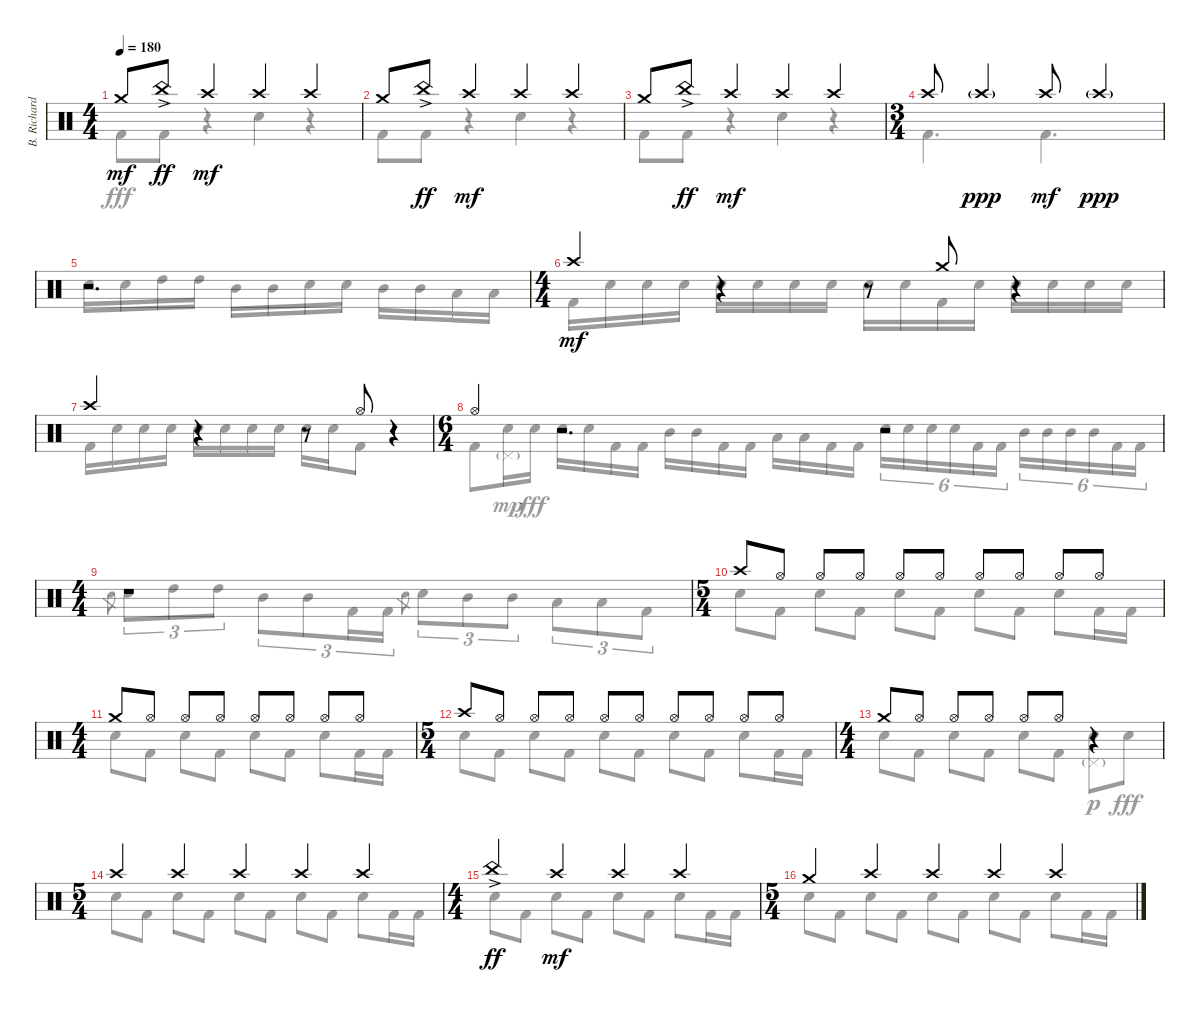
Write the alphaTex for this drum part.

\track ("B. Richardson Drums" "B. Richard") {instrument percussion}
\staff {score}
\articulation defaults
\voice
\ts (4 4)
\tempo 180
\clef neutral
\ks c "Crash medium (hit)".8{dy mf} "China (hit)"{ac}.8{dy ff} "Crash high (hit)".4{dy mf} "Crash high (hit)".4 "Crash high (hit)".4
|
"Crash medium (hit)".8 "China (hit)"{ac}.8{dy ff} "Crash high (hit)".4{dy mf} "Crash high (hit)".4 "Crash high (hit)".4 |
"Crash medium (hit)".8 "China (hit)"{ac}.8{dy ff} "Crash high (hit)".4{dy mf} "Crash high (hit)".4 "Crash high (hit)".4 |
\ts (3 4)
"Crash high (hit)".8 "Crash high (hit)"{g}.4{dy ppp} "Crash high (hit)".8{dy mf} "Crash high (hit)"{g}.4{dy ppp} |
r.2{d} |
\ts (4 4)
"Crash high (hit)".4{dy mf} r.4 r.8 "Crash medium (hit)".8 r.4 |
"Crash high (hit)".4 r.4 r.8 "Hi-Hat (open)".8 r.4 |
\ts (6 4)
"Hi-Hat (open)".4 r.2{d} r.2 |
\ts (4 4)
r.1 |
\ts (5 4)
"Crash high (hit)".8 "Hi-Hat (open)".8 "Hi-Hat (open)".8 "Hi-Hat (open)".8 "Hi-Hat (open)".8 "Hi-Hat (open)".8 "Hi-Hat (open)".8 "Hi-Hat (open)".8 "Hi-Hat (open)".8 "Hi-Hat (open)".8 |
\ts (4 4)
"Crash medium (hit)".8 "Hi-Hat (open)".8 "Hi-Hat (open)".8 "Hi-Hat (open)".8 "Hi-Hat (open)".8 "Hi-Hat (open)".8 "Hi-Hat (open)".8 "Hi-Hat (open)".8 |
\ts (5 4)
"Crash high (hit)".8 "Hi-Hat (open)".8 "Hi-Hat (open)".8 "Hi-Hat (open)".8 "Hi-Hat (open)".8 "Hi-Hat (open)".8 "Hi-Hat (open)".8 "Hi-Hat (open)".8 "Hi-Hat (open)".8 "Hi-Hat (open)".8 |
\ts (4 4)
"Crash medium (hit)".8 "Hi-Hat (open)".8 "Hi-Hat (open)".8 "Hi-Hat (open)".8 "Hi-Hat (open)".8 "Hi-Hat (open)".8 r.4 |
\ts (5 4)
"Crash high (hit)".4 "Crash high (hit)".4 "Crash high (hit)".4 "Crash high (hit)".4 "Crash high (hit)".4 |
\ts (4 4)
"China (hit)"{ac}.4{dy ff} "Crash high (hit)".4{dy mf} "Crash high (hit)".4 "Crash high (hit)".4 |
\ts (5 4)
"Crash medium (hit)".4 "Crash high (hit)".4 "Crash high (hit)".4 "Crash high (hit)".4 "Crash high (hit)".4
\voice
\clef neutral
\ottava regular
\simile none
\ks c "Kick (hit) 2".8{dy fff} "Kick (hit) 2".8
r.4 "Electric Snare (hit)".4 r.4 |
"Kick (hit) 2".8 "Kick (hit) 2".8 r.4 "Electric Snare (hit)".4 r.4 |
"Kick (hit) 2".8 "Kick (hit) 2".8 r.4 "Electric Snare (hit)".4 r.4 |
"Kick (hit) 2".4{d} "Kick (hit) 2".4{d} |
"Electric Snare (hit)".16 "Electric Snare (hit)".16 "High Tom (hit)".16 "High Tom (hit)".16 "Mid Tom (hit)".16 "Mid Tom (hit)".16 "Electric Snare (hit)".16 "Electric Snare (hit)".16 "Mid Tom (hit)".16 "Mid Tom (hit)".16 "Low Tom (hit)".16 "Low Tom (hit)".16 |
"Kick (hit) 2".16 "Electric Snare (hit)".16 "Electric Snare (hit)".16 "Electric Snare (hit)".16 "Electric Snare (hit)".16 "Electric Snare (hit)".16 "Electric Snare (hit)".16 "Electric Snare (hit)".16 "Electric Snare (hit)".16 "Electric Snare (hit)".16 "Kick (hit) 2".16 "Electric Snare (hit)".16 "Electric Snare (hit)".16 "Electric Snare (hit)".16 "Electric Snare (hit)".16 "Electric Snare (hit)".16 |
"Kick (hit) 2".16 "Electric Snare (hit)".16 "Electric Snare (hit)".16 "Electric Snare (hit)".16 "Electric Snare (hit)".16 "Electric Snare (hit)".16 "Electric Snare (hit)".16 "Electric Snare (hit)".16 "Electric Snare (hit)".16 "Electric Snare (hit)".16 "Kick (hit) 2".8 r.4 |
"Kick (hit) 2".8 ("Electric Snare (hit)" "Pedal Hi-Hat (hit)"{g}).16{dy mp} "Electric Snare (hit)".16{dy fff} "Electric Snare (hit)".16 "Electric Snare (hit)".16 "Kick (hit) 2".16 "Kick (hit) 2".16 "Mid Tom (hit)".16 "Mid Tom (hit)".16 "Kick (hit) 2".16 "Kick (hit) 2".16 "Low Tom (hit)".16 "Low Tom (hit)".16 "Kick (hit) 2".16 "Kick (hit) 2".16{beam splitsecondary} "Electric Snare (hit)".16{tu (6 4)} "Electric Snare (hit)".16{tu (6 4)} "Electric Snare (hit)".16{tu (6 4)} "Electric Snare (hit)".16{tu (6 4)} "Kick (hit) 2".16{tu (6 4)} "Kick (hit) 2".16{tu (6 4) beam splitsecondary} "Mid Tom (hit)".16{tu (6 4)} "Mid Tom (hit)".16{tu (6 4)} "Mid Tom (hit)".16{tu (6 4)} "Mid Tom (hit)".16{tu (6 4)} "Kick (hit) 2".16{tu (6 4)} "Kick (hit) 2".16{tu (6 4)} |
"Electric Snare (hit)".8{gr} "Electric Snare (hit)".8{tu (3 2)} "High Tom (hit)".8{tu (3 2)} "High Tom (hit)".8{tu (3 2)} "Mid Tom (hit)".8{tu (3 2)} "Mid Tom (hit)".8{tu (3 2)} "Kick (hit) 2".16{tu (3 2)} "Kick (hit) 2".16{tu (3 2)} "Electric Snare (hit)".8{gr} "Electric Snare (hit)".8{tu (3 2)} "Mid Tom (hit)".8{tu (3 2)} "Mid Tom (hit)".8{tu (3 2)} "Low Tom (hit)".8{tu (3 2)} "Low Tom (hit)".8{tu (3 2)} "Kick (hit) 2".8{tu (3 2)} |
"Electric Snare (hit)".8 "Kick (hit) 2".8 "Electric Snare (hit)".8 "Kick (hit) 2".8 "Electric Snare (hit)".8 "Kick (hit) 2".8 "Electric Snare (hit)".8 "Kick (hit) 2".8 "Electric Snare (hit)".8 "Kick (hit) 2".16 "Kick (hit) 2".16 |
"Electric Snare (hit)".8 "Kick (hit) 2".8 "Electric Snare (hit)".8 "Kick (hit) 2".8 "Electric Snare (hit)".8 "Kick (hit) 2".8 "Electric Snare (hit)".8 "Kick (hit) 2".16 "Kick (hit) 2".16 |
"Electric Snare (hit)".8 "Kick (hit) 2".8 "Electric Snare (hit)".8 "Kick (hit) 2".8 "Electric Snare (hit)".8 "Kick (hit) 2".8 "Electric Snare (hit)".8 "Kick (hit) 2".8 "Electric Snare (hit)".8 "Kick (hit) 2".16 "Kick (hit) 2".16 |
"Electric Snare (hit)".8 "Kick (hit) 2".8 "Electric Snare (hit)".8 "Kick (hit) 2".8 "Electric Snare (hit)".8 "Kick (hit) 2".8 ("Electric Snare (hit)" "Pedal Hi-Hat (hit)"{g}).8{dy p} "Electric Snare (hit)".8{dy fff} |
"Electric Snare (hit)".8 "Kick (hit) 2".8 "Electric Snare (hit)".8 "Kick (hit) 2".8 "Electric Snare (hit)".8 "Kick (hit) 2".8 "Electric Snare (hit)".8 "Kick (hit) 2".8 "Electric Snare (hit)".8 "Kick (hit) 2".16 "Kick (hit) 2".16 |
"Electric Snare (hit)".8 "Kick (hit) 2".8 "Electric Snare (hit)".8 "Kick (hit) 2".8 "Electric Snare (hit)".8 "Kick (hit) 2".8 "Electric Snare (hit)".8 "Kick (hit) 2".16 "Kick (hit) 2".16 |
"Electric Snare (hit)".8 "Kick (hit) 2".8 "Electric Snare (hit)".8 "Kick (hit) 2".8 "Electric Snare (hit)".8 "Kick (hit) 2".8 "Electric Snare (hit)".8 "Kick (hit) 2".8 "Electric Snare (hit)".8 "Kick (hit) 2".16 "Kick (hit) 2".16
